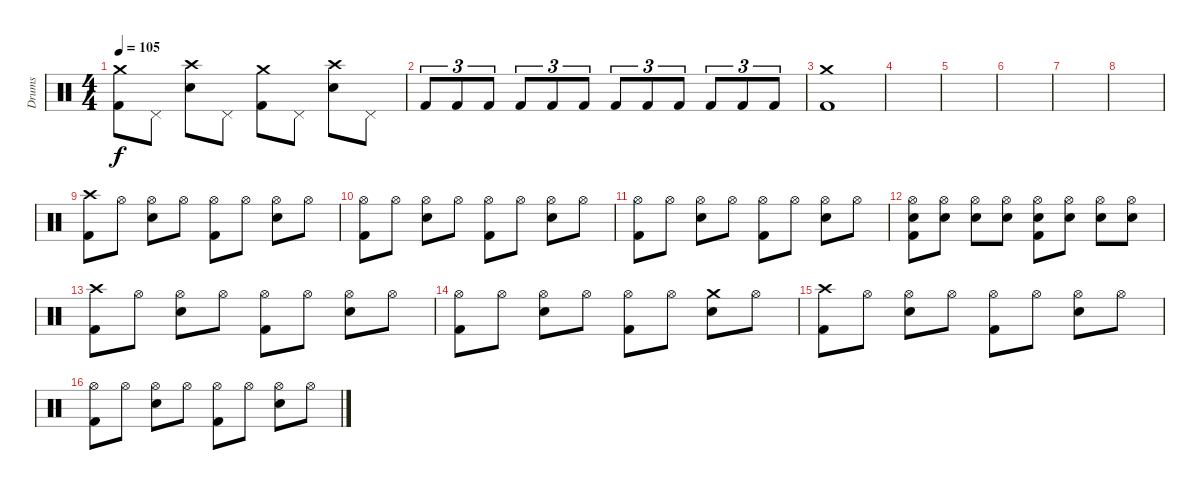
\track ("Drums" "Drums") {instrument percussion}
\staff {score}
\articulation defaults
\ts (4 4)
\tempo 105
\clef neutral
\ks c
("Crash medium (hit)" "Kick (hit) 2").8{dy f} "Pedal Hi-Hat (hit)".8 ("Crash high (hit)" "Snare (hit) 2").8 "Pedal Hi-Hat (hit)".8 ("Crash medium (hit)" "Kick (hit) 2").8 "Pedal Hi-Hat (hit)".8 ("Crash high (hit)" "Snare (hit) 2").8 "Pedal Hi-Hat (hit)".8 |
"Kick (hit) 2".8{tu (3 2)} "Kick (hit) 2".8{tu (3 2)} "Kick (hit) 2".8{tu (3 2)} "Kick (hit) 2".8{tu (3 2)} "Kick (hit) 2".8{tu (3 2)} "Kick (hit) 2".8{tu (3 2)} "Kick (hit) 2".8{tu (3 2)} "Kick (hit) 2".8{tu (3 2)} "Kick (hit) 2".8{tu (3 2)} "Kick (hit) 2".8{tu (3 2)} "Kick (hit) 2".8{tu (3 2)} "Kick (hit) 2".8{tu (3 2)} |
("Crash medium (hit)" "Kick (hit) 2").1 |
|
|
|
|
|
("Crash high (hit)" "Kick (hit) 2").8 "Hi-Hat (open)".8 ("Hi-Hat (open)" "Snare (hit) 2").8 "Hi-Hat (open)".8 ("Hi-Hat (open)" "Kick (hit) 2").8 "Hi-Hat (open)".8 ("Hi-Hat (open)" "Snare (hit) 2").8 "Hi-Hat (open)".8 |
("Hi-Hat (open)" "Kick (hit) 2").8 "Hi-Hat (open)".8 ("Hi-Hat (open)" "Snare (hit) 2").8 "Hi-Hat (open)".8 ("Hi-Hat (open)" "Kick (hit) 2").8 "Hi-Hat (open)".8 ("Hi-Hat (open)" "Snare (hit) 2").8 "Hi-Hat (open)".8 |
("Hi-Hat (open)" "Kick (hit) 2").8 "Hi-Hat (open)".8 ("Hi-Hat (open)" "Snare (hit) 2").8 "Hi-Hat (open)".8 ("Hi-Hat (open)" "Kick (hit) 2").8 "Hi-Hat (open)".8 ("Hi-Hat (open)" "Snare (hit) 2").8 "Hi-Hat (open)".8 |
("Hi-Hat (open)" "Snare (hit) 2" "Kick (hit) 2").8 ("Hi-Hat (open)" "Snare (hit) 2").8 ("Hi-Hat (open)" "Snare (hit) 2").8 ("Hi-Hat (open)" "Snare (hit) 2").8 ("Hi-Hat (open)" "Snare (hit) 2" "Kick (hit) 2").8 ("Hi-Hat (open)" "Snare (hit) 2").8 ("Hi-Hat (open)" "Snare (hit) 2").8 ("Hi-Hat (open)" "Snare (hit) 2").8 |
("Crash high (hit)" "Kick (hit) 2").8 "Hi-Hat (open)".8 ("Hi-Hat (open)" "Snare (hit) 2").8 "Hi-Hat (open)".8 ("Hi-Hat (open)" "Kick (hit) 2").8 "Hi-Hat (open)".8 ("Hi-Hat (open)" "Snare (hit) 2").8 "Hi-Hat (open)".8 |
("Hi-Hat (open)" "Kick (hit) 2").8 "Hi-Hat (open)".8 ("Hi-Hat (open)" "Snare (hit) 2").8 "Hi-Hat (open)".8 ("Hi-Hat (open)" "Kick (hit) 2").8 "Hi-Hat (open)".8 ("Crash medium (hit)" "Snare (hit) 2").8 "Hi-Hat (open)".8 |
("Crash high (hit)" "Kick (hit) 2").8 "Hi-Hat (open)".8 ("Hi-Hat (open)" "Snare (hit) 2").8 "Hi-Hat (open)".8 ("Hi-Hat (open)" "Kick (hit) 2").8 "Hi-Hat (open)".8 ("Hi-Hat (open)" "Snare (hit) 2").8 "Hi-Hat (open)".8 |
("Hi-Hat (open)" "Kick (hit) 2").8 "Hi-Hat (open)".8 ("Hi-Hat (open)" "Snare (hit) 2").8 "Hi-Hat (open)".8 ("Hi-Hat (open)" "Kick (hit) 2").8 "Hi-Hat (open)".8 ("Hi-Hat (open)" "Snare (hit) 2").8 "Hi-Hat (open)".8
